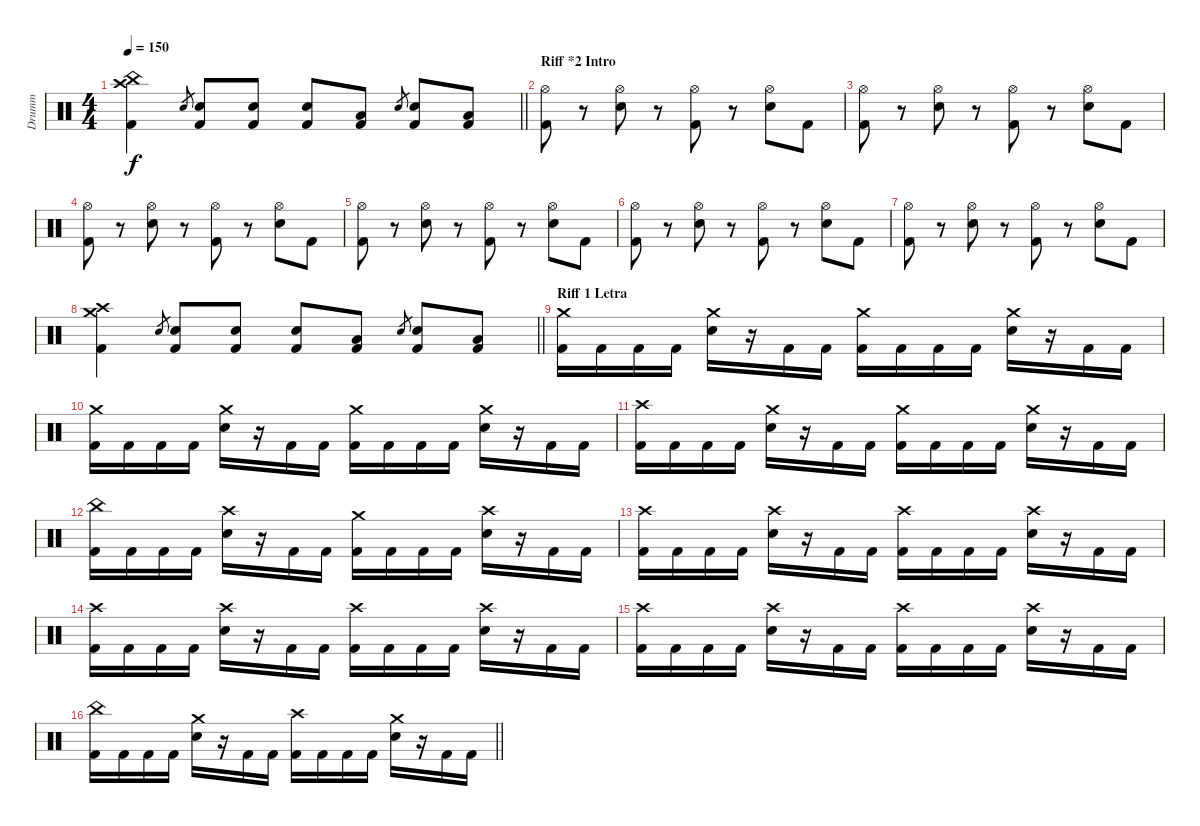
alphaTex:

\track ("Drumm" "Drumm") {instrument percussion}
\staff {score}
\articulation defaults
\ts (4 4)
\tempo 150
\clef neutral
\barLineRight lightlight
\ks c
("Crash high (hit)" "China (hit)" "Kick (hit) 2").4{dy f} "Snare (hit) 2".8{gr} ("Snare (hit) 2" "Kick (hit) 2").8 ("Snare (hit) 2" "Kick (hit) 2").8 ("Snare (hit) 2" "Kick (hit) 2").8 ("Low Tom (hit)" "Kick (hit) 2").8 "Snare (hit) 2".8{gr} ("Snare (hit) 2" "Kick (hit) 2").8 ("Low Tom (hit)" "Kick (hit) 2").8 |
\section ("" "Riff *2 Intro")
("Hi-Hat (open)" "Kick (hit) 2").8 r.8 ("Hi-Hat (open)" "Snare (hit) 2").8 r.8 ("Hi-Hat (open)" "Kick (hit) 2").8 r.8 ("Hi-Hat (open)" "Snare (hit) 2").8 "Kick (hit) 2".8 |
("Hi-Hat (open)" "Kick (hit) 2").8 r.8 ("Hi-Hat (open)" "Snare (hit) 2").8 r.8 ("Hi-Hat (open)" "Kick (hit) 2").8 r.8 ("Hi-Hat (open)" "Snare (hit) 2").8 "Kick (hit) 2".8 |
("Hi-Hat (open)" "Kick (hit) 2").8 r.8 ("Hi-Hat (open)" "Snare (hit) 2").8 r.8 ("Hi-Hat (open)" "Kick (hit) 2").8 r.8 ("Hi-Hat (open)" "Snare (hit) 2").8 "Kick (hit) 2".8 |
("Hi-Hat (open)" "Kick (hit) 2").8 r.8 ("Hi-Hat (open)" "Snare (hit) 2").8 r.8 ("Hi-Hat (open)" "Kick (hit) 2").8 r.8 ("Hi-Hat (open)" "Snare (hit) 2").8 "Kick (hit) 2".8 |
("Hi-Hat (open)" "Kick (hit) 2").8 r.8 ("Hi-Hat (open)" "Snare (hit) 2").8 r.8 ("Hi-Hat (open)" "Kick (hit) 2").8 r.8 ("Hi-Hat (open)" "Snare (hit) 2").8 "Kick (hit) 2".8 |
("Hi-Hat (open)" "Kick (hit) 2").8 r.8 ("Hi-Hat (open)" "Snare (hit) 2").8 r.8 ("Hi-Hat (open)" "Kick (hit) 2").8 r.8 ("Hi-Hat (open)" "Snare (hit) 2").8 "Kick (hit) 2".8 |
\barLineRight lightlight
("Crash high (hit)" "Crash medium (hit)" "Kick (hit) 2").4 "Snare (hit) 2".8{gr} ("Snare (hit) 2" "Kick (hit) 2").8 ("Snare (hit) 2" "Kick (hit) 2").8 ("Snare (hit) 2" "Kick (hit) 2").8 ("Low Tom (hit)" "Kick (hit) 2").8 "Snare (hit) 2".8{gr} ("Snare (hit) 2" "Kick (hit) 2").8 ("Low Tom (hit)" "Kick (hit) 2").8 |
\section ("" "Riff 1 Letra")
("Crash medium (hit)" "Kick (hit) 2").16 "Kick (hit) 2".16 "Kick (hit) 2".16 "Kick (hit) 2".16 ("Crash medium (hit)" "Snare (hit) 2").16 r.16 "Kick (hit) 2".16 "Kick (hit) 2".16 ("Crash medium (hit)" "Kick (hit) 2").16 "Kick (hit) 2".16 "Kick (hit) 2".16 "Kick (hit) 2".16 ("Crash medium (hit)" "Snare (hit) 2").16 r.16 "Kick (hit) 2".16 "Kick (hit) 2".16 |
("Crash medium (hit)" "Kick (hit) 2").16 "Kick (hit) 2".16 "Kick (hit) 2".16 "Kick (hit) 2".16 ("Crash medium (hit)" "Snare (hit) 2").16 r.16 "Kick (hit) 2".16 "Kick (hit) 2".16 ("Crash medium (hit)" "Kick (hit) 2").16 "Kick (hit) 2".16 "Kick (hit) 2".16 "Kick (hit) 2".16 ("Crash medium (hit)" "Snare (hit) 2").16 r.16 "Kick (hit) 2".16 "Kick (hit) 2".16 |
("Crash high (hit)" "Kick (hit) 2").16 "Kick (hit) 2".16 "Kick (hit) 2".16 "Kick (hit) 2".16 ("Crash medium (hit)" "Snare (hit) 2").16 r.16 "Kick (hit) 2".16 "Kick (hit) 2".16 ("Crash medium (hit)" "Kick (hit) 2").16 "Kick (hit) 2".16 "Kick (hit) 2".16 "Kick (hit) 2".16 ("Crash medium (hit)" "Snare (hit) 2").16 r.16 "Kick (hit) 2".16 "Kick (hit) 2".16 |
("China (hit)" "Kick (hit) 2").16 "Kick (hit) 2".16 "Kick (hit) 2".16 "Kick (hit) 2".16 ("Crash high (hit)" "Snare (hit) 2").16 r.16 "Kick (hit) 2".16 "Kick (hit) 2".16 ("Crash medium (hit)" "Kick (hit) 2").16 "Kick (hit) 2".16 "Kick (hit) 2".16 "Kick (hit) 2".16 ("Crash high (hit)" "Snare (hit) 2").16 r.16 "Kick (hit) 2".16 "Kick (hit) 2".16 |
("Crash high (hit)" "Kick (hit) 2").16 "Kick (hit) 2".16 "Kick (hit) 2".16 "Kick (hit) 2".16 ("Crash high (hit)" "Snare (hit) 2").16 r.16 "Kick (hit) 2".16 "Kick (hit) 2".16 ("Crash high (hit)" "Kick (hit) 2").16 "Kick (hit) 2".16 "Kick (hit) 2".16 "Kick (hit) 2".16 ("Crash high (hit)" "Snare (hit) 2").16 r.16 "Kick (hit) 2".16 "Kick (hit) 2".16 |
("Crash high (hit)" "Kick (hit) 2").16 "Kick (hit) 2".16 "Kick (hit) 2".16 "Kick (hit) 2".16 ("Crash high (hit)" "Snare (hit) 2").16 r.16 "Kick (hit) 2".16 "Kick (hit) 2".16 ("Crash high (hit)" "Kick (hit) 2").16 "Kick (hit) 2".16 "Kick (hit) 2".16 "Kick (hit) 2".16 ("Crash high (hit)" "Snare (hit) 2").16 r.16 "Kick (hit) 2".16 "Kick (hit) 2".16 |
("Crash high (hit)" "Kick (hit) 2").16 "Kick (hit) 2".16 "Kick (hit) 2".16 "Kick (hit) 2".16 ("Crash high (hit)" "Snare (hit) 2").16 r.16 "Kick (hit) 2".16 "Kick (hit) 2".16 ("Crash high (hit)" "Kick (hit) 2").16 "Kick (hit) 2".16 "Kick (hit) 2".16 "Kick (hit) 2".16 ("Crash high (hit)" "Snare (hit) 2").16 r.16 "Kick (hit) 2".16 "Kick (hit) 2".16 |
\barLineRight lightlight
("China (hit)" "Kick (hit) 2").16 "Kick (hit) 2".16 "Kick (hit) 2".16 "Kick (hit) 2".16 ("Crash medium (hit)" "Snare (hit) 2").16 r.16 "Kick (hit) 2".16 "Kick (hit) 2".16 ("Crash high (hit)" "Kick (hit) 2").16 "Kick (hit) 2".16 "Kick (hit) 2".16 "Kick (hit) 2".16 ("Crash medium (hit)" "Snare (hit) 2").16 r.16 "Kick (hit) 2".16 "Kick (hit) 2".16
